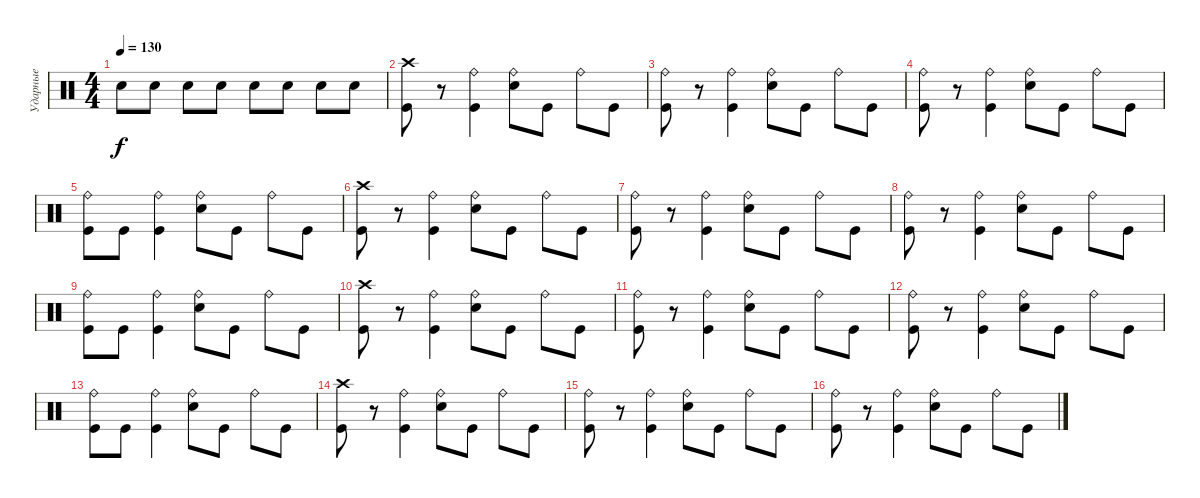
\track ("Ударные" "Ударные") {instrument percussion}
\staff {score}
\articulation defaults
\ts (4 4)
\tempo 130
\clef neutral
\ks c "Electric Snare (hit)".8{dy f} "Electric Snare (hit)".8 "Electric Snare (hit)".8 "Electric Snare (hit)".8 "Electric Snare (hit)".8 "Electric Snare (hit)".8 "Electric Snare (hit)".8 "Electric Snare (hit)".8
|
("Crash high (hit)" "Kick (hit)").8 r.8 ("Ride (bell)" "Kick (hit)").4 ("Ride (bell)" "Electric Snare (hit)").8 "Kick (hit)".8 "Ride (bell)".8 "Kick (hit)".8 |
("Ride (bell)" "Kick (hit)").8 r.8 ("Ride (bell)" "Kick (hit)").4 ("Ride (bell)" "Electric Snare (hit)").8 "Kick (hit)".8 "Ride (bell)".8 "Kick (hit)".8 |
("Ride (bell)" "Kick (hit)").8 r.8 ("Ride (bell)" "Kick (hit)").4 ("Ride (bell)" "Electric Snare (hit)").8 "Kick (hit)".8 "Ride (bell)".8 "Kick (hit)".8 |
("Ride (bell)" "Kick (hit)").8 "Kick (hit)".8 ("Ride (bell)" "Kick (hit)").4 ("Ride (bell)" "Electric Snare (hit)").8 "Kick (hit)".8 "Ride (bell)".8 "Kick (hit)".8 |
("Crash high (hit)" "Kick (hit)").8 r.8 ("Ride (bell)" "Kick (hit)").4 ("Ride (bell)" "Electric Snare (hit)").8 "Kick (hit)".8 "Ride (bell)".8 "Kick (hit)".8 |
("Ride (bell)" "Kick (hit)").8 r.8 ("Ride (bell)" "Kick (hit)").4 ("Ride (bell)" "Electric Snare (hit)").8 "Kick (hit)".8 "Ride (bell)".8 "Kick (hit)".8 |
("Ride (bell)" "Kick (hit)").8 r.8 ("Ride (bell)" "Kick (hit)").4 ("Ride (bell)" "Electric Snare (hit)").8 "Kick (hit)".8 "Ride (bell)".8 "Kick (hit)".8 |
("Ride (bell)" "Kick (hit)").8 "Kick (hit)".8 ("Ride (bell)" "Kick (hit)").4 ("Ride (bell)" "Electric Snare (hit)").8 "Kick (hit)".8 "Ride (bell)".8 "Kick (hit)".8 |
("Crash high (hit)" "Kick (hit)").8 r.8 ("Ride (bell)" "Kick (hit)").4 ("Ride (bell)" "Electric Snare (hit)").8 "Kick (hit)".8 "Ride (bell)".8 "Kick (hit)".8 |
("Ride (bell)" "Kick (hit)").8 r.8 ("Ride (bell)" "Kick (hit)").4 ("Ride (bell)" "Electric Snare (hit)").8 "Kick (hit)".8 "Ride (bell)".8 "Kick (hit)".8 |
("Ride (bell)" "Kick (hit)").8 r.8 ("Ride (bell)" "Kick (hit)").4 ("Ride (bell)" "Electric Snare (hit)").8 "Kick (hit)".8 "Ride (bell)".8 "Kick (hit)".8 |
("Ride (bell)" "Kick (hit)").8 "Kick (hit)".8 ("Ride (bell)" "Kick (hit)").4 ("Ride (bell)" "Electric Snare (hit)").8 "Kick (hit)".8 "Ride (bell)".8 "Kick (hit)".8 |
("Crash high (hit)" "Kick (hit)").8 r.8 ("Ride (bell)" "Kick (hit)").4 ("Ride (bell)" "Electric Snare (hit)").8 "Kick (hit)".8 "Ride (bell)".8 "Kick (hit)".8 |
("Ride (bell)" "Kick (hit)").8 r.8 ("Ride (bell)" "Kick (hit)").4 ("Ride (bell)" "Electric Snare (hit)").8 "Kick (hit)".8 "Ride (bell)".8 "Kick (hit)".8 |
("Ride (bell)" "Kick (hit)").8 r.8 ("Ride (bell)" "Kick (hit)").4 ("Ride (bell)" "Electric Snare (hit)").8 "Kick (hit)".8 "Ride (bell)".8 "Kick (hit)".8
